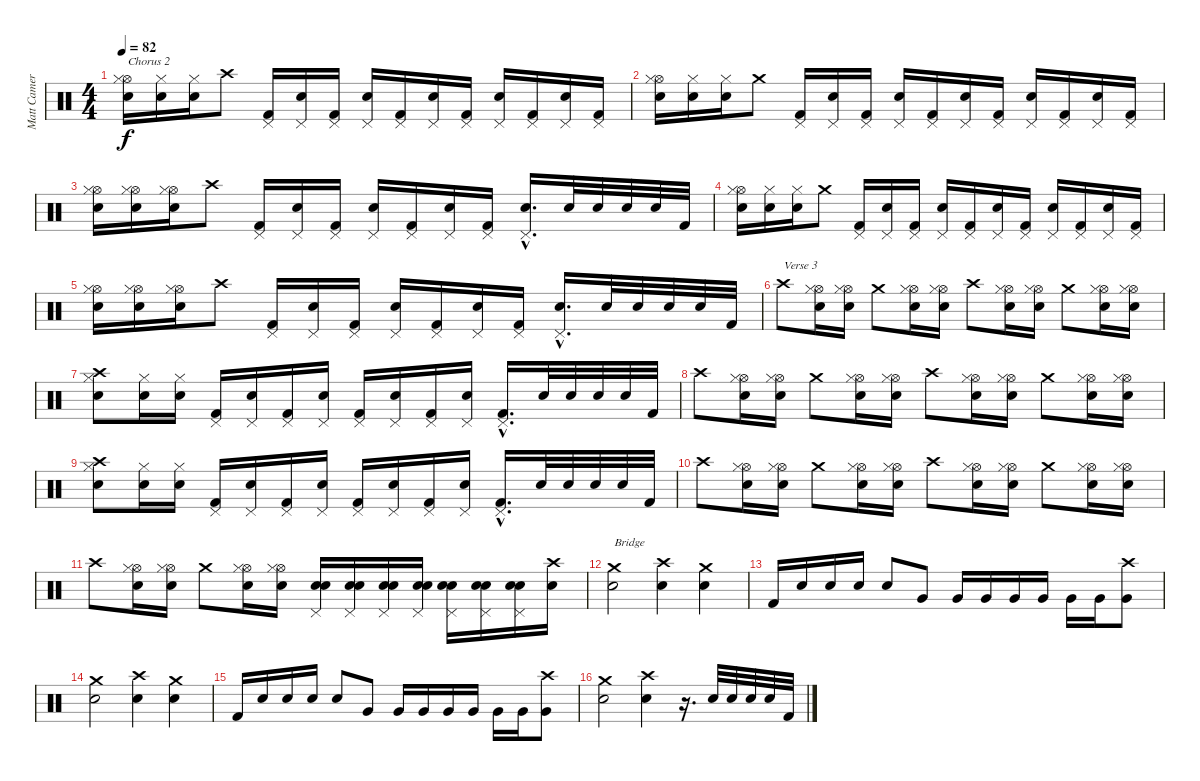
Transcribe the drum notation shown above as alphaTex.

\track ("Matt Cameron" "Matt Camer") {instrument percussion}
\staff {score}
\articulation defaults
\ts (4 4)
\tempo 82
\clef neutral
\ks c
("Hi-Hat (open)" "Hi-Hat (closed)" "Snare (hit) 2").16{txt "Chorus 2" dy f} ("Hi-Hat (closed)" "Snare (hit) 2").16 ("Hi-Hat (closed)" "Snare (hit) 2").16 "Crash high (hit)".8 ("Pedal Hi-Hat (hit)" "Kick (hit) 2").16 ("Pedal Hi-Hat (hit)" "Snare (hit) 2").16 ("Pedal Hi-Hat (hit)" "Kick (hit) 2").16 ("Pedal Hi-Hat (hit)" "Snare (hit) 2").16 ("Pedal Hi-Hat (hit)" "Kick (hit) 2").16 ("Pedal Hi-Hat (hit)" "Snare (hit) 2").16 ("Pedal Hi-Hat (hit)" "Kick (hit) 2").16 ("Pedal Hi-Hat (hit)" "Snare (hit) 2").16 ("Pedal Hi-Hat (hit)" "Kick (hit) 2").16 ("Pedal Hi-Hat (hit)" "Snare (hit) 2").16 ("Pedal Hi-Hat (hit)" "Kick (hit) 2").16 |
("Hi-Hat (open)" "Hi-Hat (closed)" "Snare (hit) 2").16 ("Hi-Hat (closed)" "Snare (hit) 2").16 ("Hi-Hat (closed)" "Snare (hit) 2").16 "Crash medium (hit)".8 ("Pedal Hi-Hat (hit)" "Kick (hit) 2").16 ("Pedal Hi-Hat (hit)" "Snare (hit) 2").16 ("Pedal Hi-Hat (hit)" "Kick (hit) 2").16 ("Pedal Hi-Hat (hit)" "Snare (hit) 2").16 ("Pedal Hi-Hat (hit)" "Kick (hit) 2").16 ("Pedal Hi-Hat (hit)" "Snare (hit) 2").16 ("Pedal Hi-Hat (hit)" "Kick (hit) 2").16 ("Pedal Hi-Hat (hit)" "Snare (hit) 2").16 ("Pedal Hi-Hat (hit)" "Kick (hit) 2").16 ("Pedal Hi-Hat (hit)" "Snare (hit) 2").16 ("Pedal Hi-Hat (hit)" "Kick (hit) 2").16 |
("Hi-Hat (open)" "Hi-Hat (closed)" "Snare (hit) 2").16 ("Hi-Hat (open)" "Hi-Hat (closed)" "Snare (hit) 2").16 ("Hi-Hat (open)" "Hi-Hat (closed)" "Snare (hit) 2").16 "Crash high (hit)".8 ("Pedal Hi-Hat (hit)" "Kick (hit) 2").16 ("Pedal Hi-Hat (hit)" "Snare (hit) 2").16 ("Pedal Hi-Hat (hit)" "Kick (hit) 2").16 ("Pedal Hi-Hat (hit)" "Snare (hit) 2").16 ("Pedal Hi-Hat (hit)" "Kick (hit) 2").16 ("Pedal Hi-Hat (hit)" "Snare (hit) 2").16 ("Pedal Hi-Hat (hit)" "Kick (hit) 2").16 ("Pedal Hi-Hat (hit)"{hac} "Snare (hit) 2"{hac}).16{d} "Snare (hit) 2".32 "Snare (hit) 2".32 "Snare (hit) 2".32 "Snare (hit) 2".32 "Kick (hit) 2".32 |
("Hi-Hat (open)" "Hi-Hat (closed)" "Snare (hit) 2").16 ("Hi-Hat (closed)" "Snare (hit) 2").16 ("Hi-Hat (closed)" "Snare (hit) 2").16 "Crash medium (hit)".8 ("Pedal Hi-Hat (hit)" "Kick (hit) 2").16 ("Pedal Hi-Hat (hit)" "Snare (hit) 2").16 ("Pedal Hi-Hat (hit)" "Kick (hit) 2").16 ("Pedal Hi-Hat (hit)" "Snare (hit) 2").16 ("Pedal Hi-Hat (hit)" "Kick (hit) 2").16 ("Pedal Hi-Hat (hit)" "Snare (hit) 2").16 ("Pedal Hi-Hat (hit)" "Kick (hit) 2").16 ("Pedal Hi-Hat (hit)" "Snare (hit) 2").16 ("Pedal Hi-Hat (hit)" "Kick (hit) 2").16 ("Pedal Hi-Hat (hit)" "Snare (hit) 2").16 ("Pedal Hi-Hat (hit)" "Kick (hit) 2").16 |
("Hi-Hat (open)" "Hi-Hat (closed)" "Snare (hit) 2").16 ("Hi-Hat (open)" "Hi-Hat (closed)" "Snare (hit) 2").16 ("Hi-Hat (open)" "Hi-Hat (closed)" "Snare (hit) 2").16 "Crash high (hit)".8 ("Pedal Hi-Hat (hit)" "Kick (hit) 2").16 ("Pedal Hi-Hat (hit)" "Snare (hit) 2").16 ("Pedal Hi-Hat (hit)" "Kick (hit) 2").16 ("Pedal Hi-Hat (hit)" "Snare (hit) 2").16 ("Pedal Hi-Hat (hit)" "Kick (hit) 2").16 ("Pedal Hi-Hat (hit)" "Snare (hit) 2").16 ("Pedal Hi-Hat (hit)" "Kick (hit) 2").16 ("Pedal Hi-Hat (hit)"{hac} "Snare (hit) 2"{hac}).16{d} "Snare (hit) 2".32 "Snare (hit) 2".32 "Snare (hit) 2".32 "Snare (hit) 2".32 "Kick (hit) 2".32 |
"Crash high (hit)".8{txt "Verse 3"} ("Hi-Hat (open)" "Hi-Hat (closed)" "Snare (hit) 2").16 ("Hi-Hat (open)" "Hi-Hat (closed)" "Snare (hit) 2").16 "Crash medium (hit)".8 ("Hi-Hat (open)" "Hi-Hat (closed)" "Snare (hit) 2").16 ("Hi-Hat (open)" "Hi-Hat (closed)" "Snare (hit) 2").16 "Crash high (hit)".8 ("Hi-Hat (open)" "Hi-Hat (closed)" "Snare (hit) 2").16 ("Hi-Hat (open)" "Hi-Hat (closed)" "Snare (hit) 2").16 "Crash medium (hit)".8 ("Hi-Hat (open)" "Hi-Hat (closed)" "Snare (hit) 2").16 ("Hi-Hat (open)" "Hi-Hat (closed)" "Snare (hit) 2").16 |
("Crash high (hit)" "Hi-Hat (closed)" "Snare (hit) 2").8 ("Hi-Hat (closed)" "Snare (hit) 2").16 ("Hi-Hat (closed)" "Snare (hit) 2").16 ("Pedal Hi-Hat (hit)" "Kick (hit) 2").16 ("Pedal Hi-Hat (hit)" "Snare (hit) 2").16 ("Pedal Hi-Hat (hit)" "Kick (hit) 2").16 ("Pedal Hi-Hat (hit)" "Snare (hit) 2").16 ("Pedal Hi-Hat (hit)" "Kick (hit) 2").16 ("Pedal Hi-Hat (hit)" "Snare (hit) 2").16 ("Pedal Hi-Hat (hit)" "Kick (hit) 2").16 ("Pedal Hi-Hat (hit)" "Snare (hit) 2").16 ("Pedal Hi-Hat (hit)"{hac} "Kick (hit) 2"{hac}).16{d} "Snare (hit) 2".32 "Snare (hit) 2".32 "Snare (hit) 2".32 "Snare (hit) 2".32 "Kick (hit) 2".32 |
"Crash high (hit)".8 ("Hi-Hat (open)" "Hi-Hat (closed)" "Snare (hit) 2").16 ("Hi-Hat (open)" "Hi-Hat (closed)" "Snare (hit) 2").16 "Crash medium (hit)".8 ("Hi-Hat (open)" "Hi-Hat (closed)" "Snare (hit) 2").16 ("Hi-Hat (open)" "Hi-Hat (closed)" "Snare (hit) 2").16 "Crash high (hit)".8 ("Hi-Hat (open)" "Hi-Hat (closed)" "Snare (hit) 2").16 ("Hi-Hat (open)" "Hi-Hat (closed)" "Snare (hit) 2").16 "Crash medium (hit)".8 ("Hi-Hat (open)" "Hi-Hat (closed)" "Snare (hit) 2").16 ("Hi-Hat (open)" "Hi-Hat (closed)" "Snare (hit) 2").16 |
("Crash high (hit)" "Hi-Hat (closed)" "Snare (hit) 2").8 ("Hi-Hat (closed)" "Snare (hit) 2").16 ("Hi-Hat (closed)" "Snare (hit) 2").16 ("Pedal Hi-Hat (hit)" "Kick (hit) 2").16 ("Pedal Hi-Hat (hit)" "Snare (hit) 2").16 ("Pedal Hi-Hat (hit)" "Kick (hit) 2").16 ("Pedal Hi-Hat (hit)" "Snare (hit) 2").16 ("Pedal Hi-Hat (hit)" "Kick (hit) 2").16 ("Pedal Hi-Hat (hit)" "Snare (hit) 2").16 ("Pedal Hi-Hat (hit)" "Kick (hit) 2").16 ("Pedal Hi-Hat (hit)" "Snare (hit) 2").16 ("Pedal Hi-Hat (hit)"{hac} "Kick (hit) 2"{hac}).16{d} "Snare (hit) 2".32 "Snare (hit) 2".32 "Snare (hit) 2".32 "Snare (hit) 2".32 "Kick (hit) 2".32 |
"Crash high (hit)".8 ("Hi-Hat (open)" "Hi-Hat (closed)" "Snare (hit) 2").16 ("Hi-Hat (open)" "Hi-Hat (closed)" "Snare (hit) 2").16 "Crash medium (hit)".8 ("Hi-Hat (open)" "Hi-Hat (closed)" "Snare (hit) 2").16 ("Hi-Hat (open)" "Hi-Hat (closed)" "Snare (hit) 2").16 "Crash high (hit)".8 ("Hi-Hat (open)" "Hi-Hat (closed)" "Snare (hit) 2").16 ("Hi-Hat (open)" "Hi-Hat (closed)" "Snare (hit) 2").16 "Crash medium (hit)".8 ("Hi-Hat (open)" "Hi-Hat (closed)" "Snare (hit) 2").16 ("Hi-Hat (open)" "Hi-Hat (closed)" "Snare (hit) 2").16 |
"Crash high (hit)".8 ("Hi-Hat (open)" "Hi-Hat (closed)" "Snare (hit) 2").16 ("Hi-Hat (open)" "Hi-Hat (closed)" "Snare (hit) 2").16 "Crash medium (hit)".8 ("Hi-Hat (open)" "Hi-Hat (closed)" "Snare (hit) 2").16 ("Hi-Hat (open)" "Hi-Hat (closed)" "Snare (hit) 2").16 ("Pedal Hi-Hat (hit)" "Snare (hit) 2" "Snare (hit) 2").16 ("Pedal Hi-Hat (hit)" "Snare (hit) 2" "Snare (hit) 2").16 ("Pedal Hi-Hat (hit)" "Snare (hit) 2" "Snare (hit) 2").16 ("Pedal Hi-Hat (hit)" "Snare (hit) 2" "Snare (hit) 2").16 ("Pedal Hi-Hat (hit)" "Snare (hit) 2" "Snare (hit) 2").16 ("Pedal Hi-Hat (hit)" "Snare (hit) 2" "Snare (hit) 2").16 ("Pedal Hi-Hat (hit)" "Snare (hit) 2" "Snare (hit) 2").16 ("Crash high (hit)" "Snare (hit) 2").16 |
("Crash medium (hit)" "Electric Snare (hit)").2{txt "Bridge"} ("Crash high (hit)" "Electric Snare (hit)").4 ("Crash medium (hit)" "Electric Snare (hit)").4 |
"Kick (hit) 2".16 "Snare (hit) 2".16 "Snare (hit) 2".16 "Snare (hit) 2".16 "Snare (hit) 2".8 "Very Low Tom (hit)".8 "Very Low Tom (hit)".16 "Very Low Tom (hit)".16 "Very Low Tom (hit)".16 "Very Low Tom (hit)".16 "Very Low Tom (hit)".16 "Very Low Tom (hit)".16 ("Crash high (hit)" "Very Low Tom (hit)").8 |
("Crash medium (hit)" "Electric Snare (hit)").2 ("Crash high (hit)" "Electric Snare (hit)").4 ("Crash medium (hit)" "Electric Snare (hit)").4 |
"Kick (hit) 2".16 "Snare (hit) 2".16 "Snare (hit) 2".16 "Snare (hit) 2".16 "Snare (hit) 2".8 "Very Low Tom (hit)".8 "Very Low Tom (hit)".16 "Very Low Tom (hit)".16 "Very Low Tom (hit)".16 "Very Low Tom (hit)".16 "Very Low Tom (hit)".16 "Very Low Tom (hit)".16 ("Crash high (hit)" "Very Low Tom (hit)").8 |
("Crash medium (hit)" "Electric Snare (hit)").2 ("Crash high (hit)" "Electric Snare (hit)").4 r.16{d} "Snare (hit) 2".32 "Snare (hit) 2".32 "Snare (hit) 2".32 "Snare (hit) 2".32 "Kick (hit) 2".32
